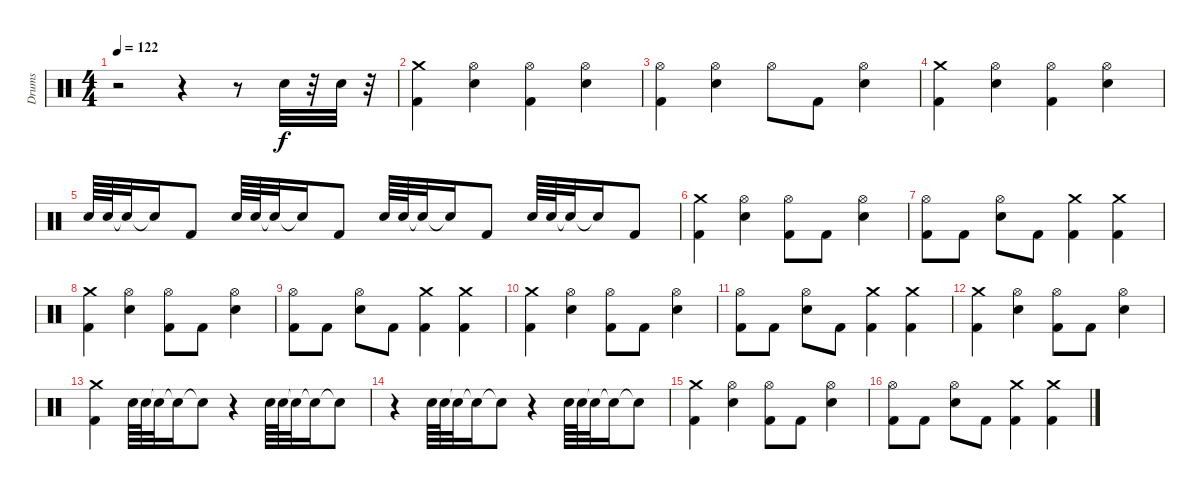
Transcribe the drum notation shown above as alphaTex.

\track ("Drums" "Drums") {instrument percussion}
\staff {score}
\articulation defaults
\ts (4 4)
\tempo 122
\clef neutral
\ks c
r.2{dy f} r.4 r.8 "Electric Snare (hit)".32 r.32 "Electric Snare (hit)".32 r.32 |
("Crash medium (hit)" "Kick (hit) 2").4 ("Hi-Hat (open)" "Electric Snare (hit)").4 ("Hi-Hat (open)" "Kick (hit) 2").4 ("Hi-Hat (open)" "Electric Snare (hit)").4 |
("Hi-Hat (open)" "Kick (hit) 2").4 ("Hi-Hat (open)" "Electric Snare (hit)").4 "Hi-Hat (open)".8 "Kick (hit) 2".8 ("Hi-Hat (open)" "Electric Snare (hit)").4 |
("Crash medium (hit)" "Kick (hit) 2").4 ("Hi-Hat (open)" "Electric Snare (hit)").4 ("Hi-Hat (open)" "Kick (hit) 2").4 ("Hi-Hat (open)" "Electric Snare (hit)").4 |
"Electric Snare (hit)".64 "Electric Snare (hit)".64 "Snare (hit)"{t}.32 "Snare (hit)"{t}.16 "Kick (hit) 2".8 "Electric Snare (hit)".64 "Electric Snare (hit)".64 "Snare (hit)"{t}.32 "Snare (hit)"{t}.16 "Kick (hit) 2".8 "Electric Snare (hit)".64 "Electric Snare (hit)".64 "Snare (hit)"{t}.32 "Snare (hit)"{t}.16 "Kick (hit) 2".8 "Electric Snare (hit)".64 "Electric Snare (hit)".64 "Snare (hit)"{t}.32 "Snare (hit)"{t}.16 "Kick (hit) 2".8 |
("Crash medium (hit)" "Kick (hit) 2").4 ("Hi-Hat (open)" "Electric Snare (hit)").4 ("Hi-Hat (open)" "Kick (hit) 2").8 "Kick (hit) 2".8 ("Hi-Hat (open)" "Electric Snare (hit)").4 |
("Hi-Hat (open)" "Kick (hit) 2").8 "Kick (hit) 2".8 ("Hi-Hat (open)" "Electric Snare (hit)").8 "Kick (hit) 2".8 ("Crash medium (hit)" "Kick (hit) 2").4 ("Crash medium (hit)" "Kick (hit) 2").4 |
("Crash medium (hit)" "Kick (hit) 2").4 ("Hi-Hat (open)" "Electric Snare (hit)").4 ("Hi-Hat (open)" "Kick (hit) 2").8 "Kick (hit) 2".8 ("Hi-Hat (open)" "Electric Snare (hit)").4 |
("Hi-Hat (open)" "Kick (hit) 2").8 "Kick (hit) 2".8 ("Hi-Hat (open)" "Electric Snare (hit)").8 "Kick (hit) 2".8 ("Crash medium (hit)" "Kick (hit) 2").4 ("Crash medium (hit)" "Kick (hit) 2").4 |
("Crash medium (hit)" "Kick (hit) 2").4 ("Hi-Hat (open)" "Electric Snare (hit)").4 ("Hi-Hat (open)" "Kick (hit) 2").8 "Kick (hit) 2".8 ("Hi-Hat (open)" "Electric Snare (hit)").4 |
("Hi-Hat (open)" "Kick (hit) 2").8 "Kick (hit) 2".8 ("Hi-Hat (open)" "Electric Snare (hit)").8 "Kick (hit) 2".8 ("Crash medium (hit)" "Kick (hit) 2").4 ("Crash medium (hit)" "Kick (hit) 2").4 |
("Crash medium (hit)" "Kick (hit) 2").4 ("Hi-Hat (open)" "Electric Snare (hit)").4 ("Hi-Hat (open)" "Kick (hit) 2").8 "Kick (hit) 2".8 ("Hi-Hat (open)" "Electric Snare (hit)").4 |
("Crash medium (hit)" "Kick (hit) 2").4 "Electric Snare (hit)".64 "Electric Snare (hit)".64 "Snare (hit)"{t}.32 "Snare (hit)"{t}.16 "Snare (hit)"{t}.8 r.4 "Electric Snare (hit)".64 "Electric Snare (hit)".64 "Snare (hit)"{t}.32 "Snare (hit)"{t}.16 "Snare (hit)"{t}.8 |
r.4 "Electric Snare (hit)".64 "Electric Snare (hit)".64 "Snare (hit)"{t}.32 "Snare (hit)"{t}.16 "Snare (hit)"{t}.8 r.4 "Electric Snare (hit)".64 "Electric Snare (hit)".64 "Snare (hit)"{t}.32 "Snare (hit)"{t}.16 "Snare (hit)"{t}.8 |
("Crash medium (hit)" "Kick (hit) 2").4 ("Hi-Hat (open)" "Electric Snare (hit)").4 ("Hi-Hat (open)" "Kick (hit) 2").8 "Kick (hit) 2".8 ("Hi-Hat (open)" "Electric Snare (hit)").4 |
("Hi-Hat (open)" "Kick (hit) 2").8 "Kick (hit) 2".8 ("Hi-Hat (open)" "Electric Snare (hit)").8 "Kick (hit) 2".8 ("Crash medium (hit)" "Kick (hit) 2").4 ("Crash medium (hit)" "Kick (hit) 2").4
